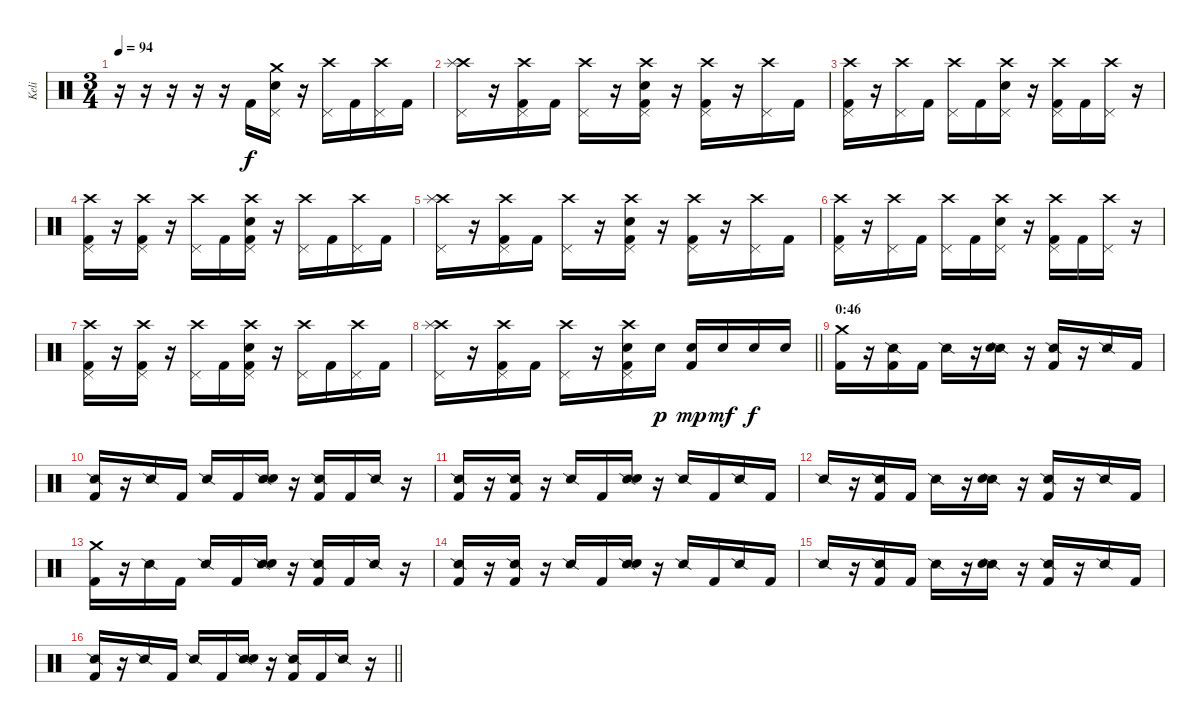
\track ("Keli" "Keli") {instrument percussion}
\staff {score}
\articulation defaults
\ts (3 4)
\tempo 94
\clef neutral
\ks c
r.16{dy f} r.16 r.16 r.16 r.16 "Kick (hit) 2".16 ("Crash medium (hit)" "Snare (hit) 2" "Pedal Hi-Hat (hit)").16 r.16 ("Crash high (hit)" "Pedal Hi-Hat (hit)").16 "Kick (hit) 2".16 ("Crash high (hit)" "Pedal Hi-Hat (hit)").16 "Kick (hit) 2".16 |
("Crash high (hit)" "Splash (hit)" "Pedal Hi-Hat (hit)").16 r.16 ("Crash high (hit)" "Pedal Hi-Hat (hit)" "Kick (hit) 2").16 "Kick (hit) 2".16 ("Crash high (hit)" "Pedal Hi-Hat (hit)").16 r.16 ("Crash high (hit)" "Snare (hit) 2" "Pedal Hi-Hat (hit)" "Kick (hit) 2").16 r.16 ("Crash high (hit)" "Pedal Hi-Hat (hit)" "Kick (hit) 2").16 r.16 ("Crash high (hit)" "Pedal Hi-Hat (hit)").16 "Kick (hit) 2".16 |
("Crash high (hit)" "Pedal Hi-Hat (hit)" "Kick (hit) 2").16 r.16 ("Crash high (hit)" "Pedal Hi-Hat (hit)").16 "Kick (hit) 2".16 ("Crash high (hit)" "Pedal Hi-Hat (hit)").16 "Kick (hit) 2".16 ("Crash high (hit)" "Snare (hit) 2" "Pedal Hi-Hat (hit)").16 r.16 ("Crash high (hit)" "Pedal Hi-Hat (hit)" "Kick (hit) 2").16 "Kick (hit) 2".16 ("Crash high (hit)" "Pedal Hi-Hat (hit)").16 r.16 |
("Crash high (hit)" "Pedal Hi-Hat (hit)" "Kick (hit) 2").16 r.16 ("Crash high (hit)" "Pedal Hi-Hat (hit)" "Kick (hit) 2").16 r.16 ("Crash high (hit)" "Pedal Hi-Hat (hit)").16 "Kick (hit) 2".16 ("Crash high (hit)" "Snare (hit) 2" "Pedal Hi-Hat (hit)" "Kick (hit) 2").16 r.16 ("Crash high (hit)" "Pedal Hi-Hat (hit)").16 "Kick (hit) 2".16 ("Crash high (hit)" "Pedal Hi-Hat (hit)").16 "Kick (hit) 2".16 |
("Crash high (hit)" "Splash (hit)" "Pedal Hi-Hat (hit)").16 r.16 ("Crash high (hit)" "Pedal Hi-Hat (hit)" "Kick (hit) 2").16 "Kick (hit) 2".16 ("Crash high (hit)" "Pedal Hi-Hat (hit)").16 r.16 ("Crash high (hit)" "Snare (hit) 2" "Pedal Hi-Hat (hit)" "Kick (hit) 2").16 r.16 ("Crash high (hit)" "Pedal Hi-Hat (hit)" "Kick (hit) 2").16 r.16 ("Crash high (hit)" "Pedal Hi-Hat (hit)").16 "Kick (hit) 2".16 |
("Crash high (hit)" "Pedal Hi-Hat (hit)" "Kick (hit) 2").16 r.16 ("Crash high (hit)" "Pedal Hi-Hat (hit)").16 "Kick (hit) 2".16 ("Crash high (hit)" "Pedal Hi-Hat (hit)").16 "Kick (hit) 2".16 ("Crash high (hit)" "Snare (hit) 2" "Pedal Hi-Hat (hit)").16 r.16 ("Crash high (hit)" "Pedal Hi-Hat (hit)" "Kick (hit) 2").16 "Kick (hit) 2".16 ("Crash high (hit)" "Pedal Hi-Hat (hit)").16 r.16 |
("Crash high (hit)" "Pedal Hi-Hat (hit)" "Kick (hit) 2").16 r.16 ("Crash high (hit)" "Pedal Hi-Hat (hit)" "Kick (hit) 2").16 r.16 ("Crash high (hit)" "Pedal Hi-Hat (hit)").16 "Kick (hit) 2".16 ("Crash high (hit)" "Snare (hit) 2" "Pedal Hi-Hat (hit)" "Kick (hit) 2").16 r.16 ("Crash high (hit)" "Pedal Hi-Hat (hit)").16 "Kick (hit) 2".16 ("Crash high (hit)" "Pedal Hi-Hat (hit)").16 "Kick (hit) 2".16 |
\barLineRight lightlight
("Crash high (hit)" "Splash (hit)" "Pedal Hi-Hat (hit)").16 r.16 ("Crash high (hit)" "Pedal Hi-Hat (hit)" "Kick (hit) 2").16 "Kick (hit) 2".16 ("Crash high (hit)" "Pedal Hi-Hat (hit)").16 r.16 ("Crash high (hit)" "Snare (hit) 2" "Pedal Hi-Hat (hit)" "Kick (hit) 2").16 "Snare (hit) 2".16{dy p} ("Snare (hit) 2" "Kick (hit) 2").16{dy mp} "Snare (hit) 2".16{dy mf} "Snare (hit) 2".16{dy f} "Snare (hit) 2".16 |
\section ("" "0:46")
("Crash medium (hit)" "Kick (hit) 2").16 r.16 ("Snare (side stick) 2" "Kick (hit) 2").16 "Kick (hit) 2".16 "Snare (side stick) 2".16 r.16 ("Snare (side stick) 2" "Snare (hit) 2").16 r.16 ("Snare (side stick) 2" "Kick (hit) 2").16 r.16 "Snare (side stick) 2".16 "Kick (hit) 2".16 |
("Snare (side stick) 2" "Kick (hit) 2").16 r.16 "Snare (side stick) 2".16 "Kick (hit) 2".16 "Snare (side stick) 2".16 "Kick (hit) 2".16 ("Snare (side stick) 2" "Snare (hit) 2").16 r.16 ("Snare (side stick) 2" "Kick (hit) 2").16 "Kick (hit) 2".16 "Snare (side stick) 2".16 r.16 |
("Snare (side stick) 2" "Kick (hit) 2").16 r.16 ("Snare (side stick) 2" "Kick (hit) 2").16 r.16 "Snare (side stick) 2".16 "Kick (hit) 2".16 ("Snare (side stick) 2" "Snare (hit) 2").16 r.16 "Snare (side stick) 2".16 "Kick (hit) 2".16 "Snare (side stick) 2".16 "Kick (hit) 2".16 |
"Snare (side stick) 2".16 r.16 ("Snare (side stick) 2" "Kick (hit) 2").16 "Kick (hit) 2".16 "Snare (side stick) 2".16 r.16 ("Snare (side stick) 2" "Snare (hit) 2").16 r.16 ("Snare (side stick) 2" "Kick (hit) 2").16 r.16 "Snare (side stick) 2".16 "Kick (hit) 2".16 |
("Crash medium (hit)" "Kick (hit) 2").16 r.16 "Snare (side stick) 2".16 "Kick (hit) 2".16 "Snare (side stick) 2".16 "Kick (hit) 2".16 ("Snare (side stick) 2" "Snare (hit) 2").16 r.16 ("Snare (side stick) 2" "Kick (hit) 2").16 "Kick (hit) 2".16 "Snare (side stick) 2".16 r.16 |
("Snare (side stick) 2" "Kick (hit) 2").16 r.16 ("Snare (side stick) 2" "Kick (hit) 2").16 r.16 "Snare (side stick) 2".16 "Kick (hit) 2".16 ("Snare (side stick) 2" "Snare (hit) 2").16 r.16 "Snare (side stick) 2".16 "Kick (hit) 2".16 "Snare (side stick) 2".16 "Kick (hit) 2".16 |
"Snare (side stick) 2".16 r.16 ("Snare (side stick) 2" "Kick (hit) 2").16 "Kick (hit) 2".16 "Snare (side stick) 2".16 r.16 ("Snare (side stick) 2" "Snare (hit) 2").16 r.16 ("Snare (side stick) 2" "Kick (hit) 2").16 r.16 "Snare (side stick) 2".16 "Kick (hit) 2".16 |
\barLineRight lightlight
("Snare (side stick) 2" "Kick (hit) 2").16 r.16 "Snare (side stick) 2".16 "Kick (hit) 2".16 "Snare (side stick) 2".16 "Kick (hit) 2".16 ("Snare (side stick) 2" "Snare (hit) 2").16 r.16 ("Snare (side stick) 2" "Kick (hit) 2").16 "Kick (hit) 2".16 "Snare (side stick) 2".16 r.16
